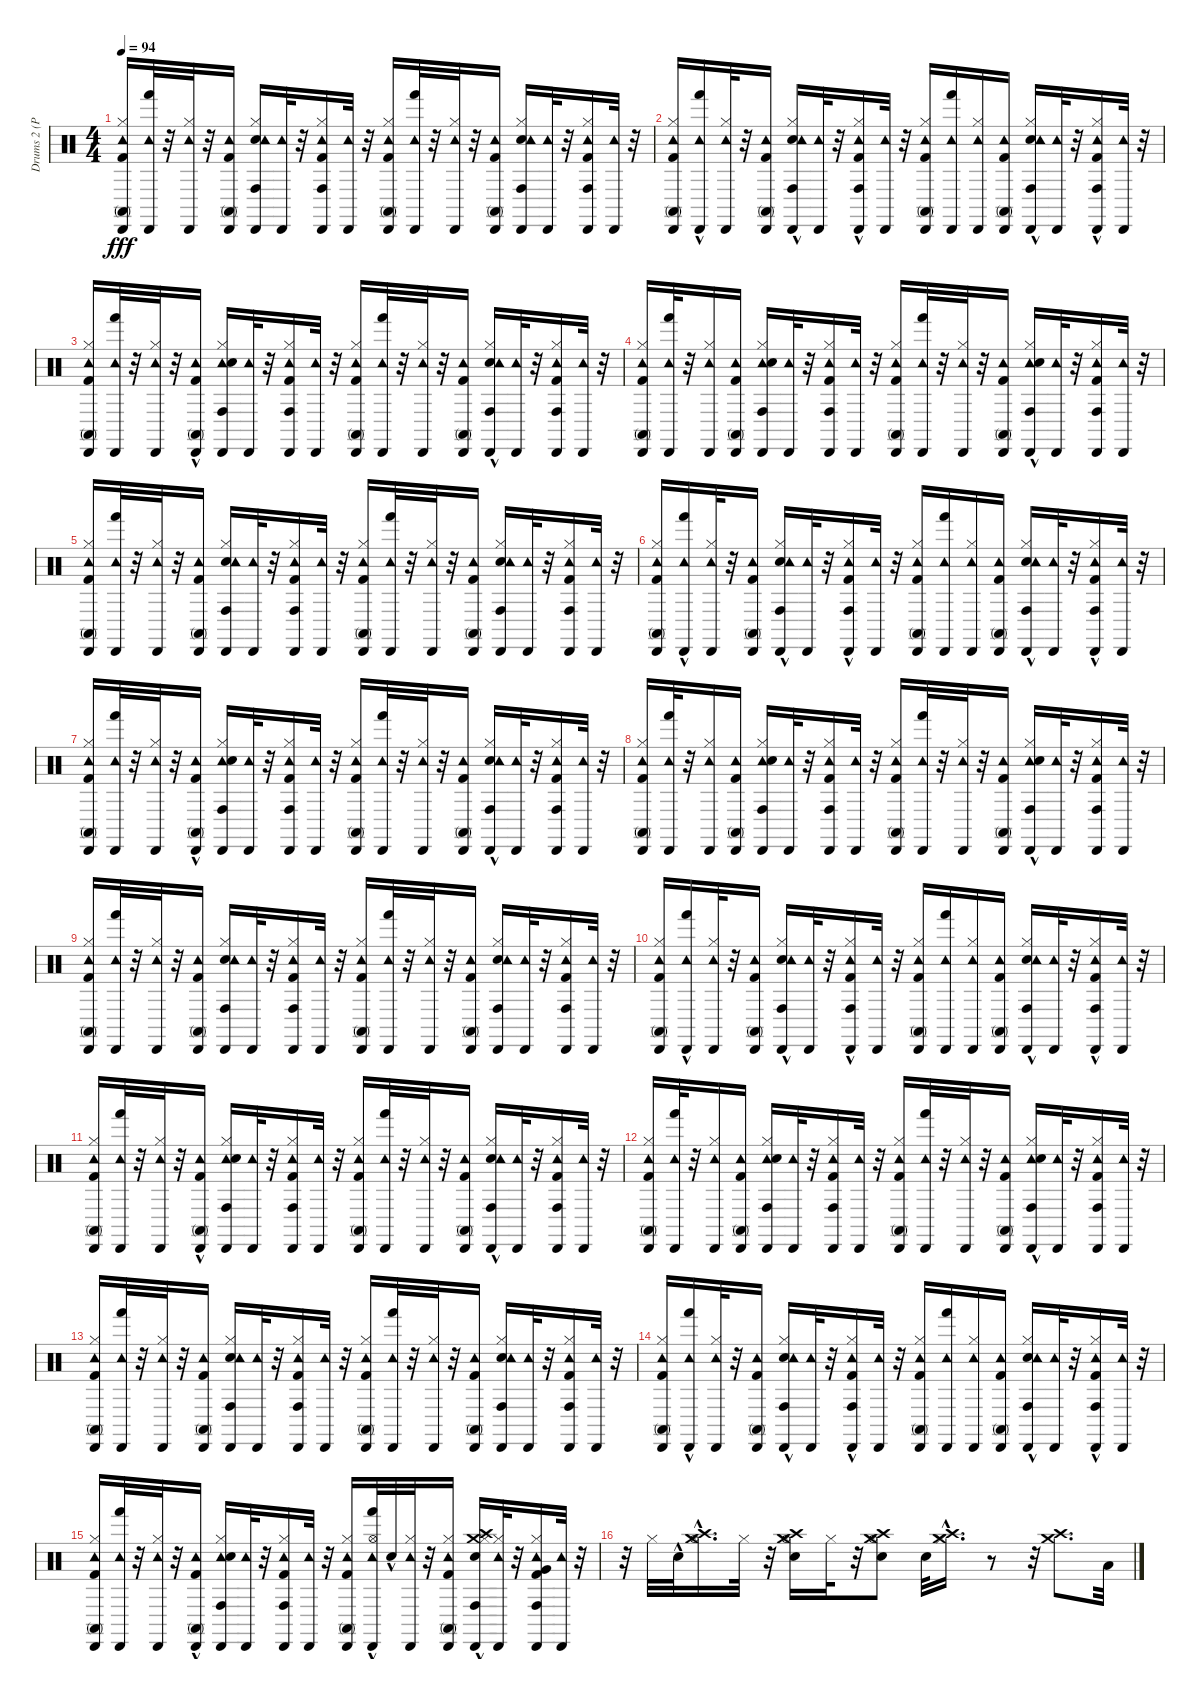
\track ("Drums 2 (Power)" "Drums 2 (P") {instrument percussion}
\staff {score}
\articulation defaults
\ts (4 4)
\tempo 94
\clef neutral
\ks c
("Kick (hit) 2" "Hi-Hat (closed)" "Conga high (mute)" "Cabasa (hit)" "Tambourine (hit)").16{dy fff} ("Tambourine (hit)" "Hand (hit)" "Cabasa (hit)").32 r.32 ("Tambourine (hit)" "Cabasa (hit)" "Hi-Hat (closed)").32 r.32 ("Tambourine (hit)" "Cabasa (hit)" "Kick (hit) 2" "Conga high (mute)").16 ("Cabasa (hit)" "Conga high (hit)" "Hi-Hat (closed)" "Snare (hit) 2" "Tambourine (hit)").16 ("Tambourine (hit)" "Cabasa (hit)").32 r.32 ("Tambourine (hit)" "Cabasa (hit)" "Hi-Hat (closed)" "Kick (hit) 2" "Conga high (hit)").16 ("Tambourine (hit)" "Cabasa (hit)").32 r.32 ("Cabasa (hit)" "Hi-Hat (closed)" "Kick (hit) 2" "Conga high (mute)" "Tambourine (hit)").16 ("Cabasa (hit)" "Hand (hit)" "Tambourine (hit)").32 r.32 ("Cabasa (hit)" "Hi-Hat (closed)" "Tambourine (hit)").32 r.32 ("Tambourine (hit)" "Cabasa (hit)" "Conga high (mute)" "Kick (hit) 2").16 ("Cabasa (hit)" "Conga high (hit)" "Hi-Hat (closed)" "Snare (hit) 2" "Tambourine (hit)").16 ("Cabasa (hit)" "Tambourine (hit)").32 r.32 ("Cabasa (hit)" "Kick (hit) 2" "Hi-Hat (closed)" "Conga high (hit)" "Tambourine (hit)").16 ("Tambourine (hit)" "Cabasa (hit)").32 r.32 |
("Hi-Hat (closed)" "Kick (hit) 2" "Cabasa (hit)" "Conga high (mute)" "Tambourine (hit)").16 ("Cabasa (hit)" "Hand (hit)"{hac} "Tambourine (hit)").16 ("Tambourine (hit)" "Cabasa (hit)" "Hi-Hat (closed)").32 r.32 ("Tambourine (hit)" "Cabasa (hit)" "Kick (hit) 2" "Conga high (mute)").16 ("Cabasa (hit)" "Hi-Hat (closed)" "Snare (hit) 2"{hac} "Conga high (hit)" "Tambourine (hit)").16 ("Tambourine (hit)" "Cabasa (hit)").32 r.32 ("Tambourine (hit)" "Cabasa (hit)" "Hi-Hat (closed)" "Kick (hit) 2"{hac} "Conga high (hit)").16 ("Tambourine (hit)" "Cabasa (hit)").32 r.32 ("Tambourine (hit)" "Conga high (mute)" "Cabasa (hit)" "Hi-Hat (closed)" "Kick (hit) 2").16 ("Tambourine (hit)" "Hand (hit)" "Cabasa (hit)").16 ("Hi-Hat (closed)" "Cabasa (hit)" "Tambourine (hit)").16 ("Conga high (mute)" "Cabasa (hit)" "Kick (hit) 2" "Tambourine (hit)").16 ("Cabasa (hit)" "Hi-Hat (closed)" "Snare (hit) 2"{hac} "Conga high (hit)" "Tambourine (hit)").16 ("Cabasa (hit)" "Tambourine (hit)").32 r.32 ("Cabasa (hit)" "Kick (hit) 2"{hac} "Hi-Hat (closed)" "Conga high (hit)" "Tambourine (hit)").16 ("Cabasa (hit)" "Tambourine (hit)").32 r.32 |
("Tambourine (hit)" "Conga high (mute)" "Kick (hit) 2" "Hi-Hat (closed)" "Cabasa (hit)").16 ("Tambourine (hit)" "Cabasa (hit)" "Hand (hit)").32 r.32 ("Tambourine (hit)" "Cabasa (hit)" "Hi-Hat (closed)").32 r.32 ("Tambourine (hit)" "Conga high (mute)"{hac} "Cabasa (hit)" "Kick (hit) 2").16 ("Tambourine (hit)" "Cabasa (hit)" "Hi-Hat (closed)" "Snare (hit) 2" "Conga high (hit)").16 ("Tambourine (hit)" "Cabasa (hit)").32 r.32 ("Hi-Hat (closed)" "Kick (hit) 2" "Cabasa (hit)" "Conga high (hit)" "Tambourine (hit)").16 ("Cabasa (hit)" "Tambourine (hit)").32 r.32 ("Cabasa (hit)" "Hi-Hat (closed)" "Kick (hit) 2" "Conga high (mute)" "Tambourine (hit)").16 ("Cabasa (hit)" "Hand (hit)" "Tambourine (hit)").32 r.32 ("Tambourine (hit)" "Cabasa (hit)" "Hi-Hat (closed)").32 r.32 ("Cabasa (hit)" "Kick (hit) 2" "Conga high (mute)" "Tambourine (hit)").16 ("Hi-Hat (closed)" "Snare (hit) 2"{hac} "Cabasa (hit)" "Conga high (hit)" "Tambourine (hit)").16 ("Tambourine (hit)" "Cabasa (hit)").32 r.32 ("Kick (hit) 2" "Hi-Hat (closed)" "Cabasa (hit)" "Conga high (hit)" "Tambourine (hit)").16 ("Cabasa (hit)" "Tambourine (hit)").32 r.32 |
("Kick (hit) 2" "Hi-Hat (closed)" "Conga high (mute)" "Cabasa (hit)" "Tambourine (hit)").16 ("Cabasa (hit)" "Hand (hit)" "Tambourine (hit)").32 r.32 ("Hi-Hat (closed)" "Cabasa (hit)" "Tambourine (hit)").16 ("Conga high (mute)" "Kick (hit) 2" "Cabasa (hit)" "Tambourine (hit)").16 ("Tambourine (hit)" "Hi-Hat (closed)" "Snare (hit) 2" "Cabasa (hit)" "Conga high (hit)").16 ("Cabasa (hit)" "Tambourine (hit)").32 r.32 ("Hi-Hat (closed)" "Kick (hit) 2" "Cabasa (hit)" "Conga high (hit)" "Tambourine (hit)").16 ("Cabasa (hit)" "Tambourine (hit)").32 r.32 ("Hi-Hat (closed)" "Kick (hit) 2" "Cabasa (hit)" "Conga high (mute)" "Tambourine (hit)").16 ("Tambourine (hit)" "Cabasa (hit)" "Hand (hit)").32 r.32 ("Tambourine (hit)" "Cabasa (hit)" "Hi-Hat (closed)").32 r.32 ("Conga high (mute)" "Cabasa (hit)" "Kick (hit) 2" "Tambourine (hit)").16 ("Tambourine (hit)" "Cabasa (hit)" "Hi-Hat (closed)" "Snare (hit) 2"{hac} "Conga high (hit)").16 ("Tambourine (hit)" "Cabasa (hit)").32 r.32 ("Tambourine (hit)" "Cabasa (hit)" "Hi-Hat (closed)" "Kick (hit) 2" "Conga high (hit)").16 ("Tambourine (hit)" "Cabasa (hit)").32 r.32 |
("Kick (hit) 2" "Hi-Hat (closed)" "Conga high (mute)" "Cabasa (hit)" "Tambourine (hit)").16 ("Tambourine (hit)" "Hand (hit)" "Cabasa (hit)").32 r.32 ("Tambourine (hit)" "Cabasa (hit)" "Hi-Hat (closed)").32 r.32 ("Tambourine (hit)" "Cabasa (hit)" "Kick (hit) 2" "Conga high (mute)").16 ("Cabasa (hit)" "Conga high (hit)" "Hi-Hat (closed)" "Snare (hit) 2" "Tambourine (hit)").16 ("Tambourine (hit)" "Cabasa (hit)").32 r.32 ("Tambourine (hit)" "Cabasa (hit)" "Hi-Hat (closed)" "Kick (hit) 2" "Conga high (hit)").16 ("Tambourine (hit)" "Cabasa (hit)").32 r.32 ("Cabasa (hit)" "Hi-Hat (closed)" "Kick (hit) 2" "Conga high (mute)" "Tambourine (hit)").16 ("Cabasa (hit)" "Hand (hit)" "Tambourine (hit)").32 r.32 ("Cabasa (hit)" "Hi-Hat (closed)" "Tambourine (hit)").32 r.32 ("Tambourine (hit)" "Cabasa (hit)" "Conga high (mute)" "Kick (hit) 2").16 ("Cabasa (hit)" "Conga high (hit)" "Hi-Hat (closed)" "Snare (hit) 2" "Tambourine (hit)").16 ("Cabasa (hit)" "Tambourine (hit)").32 r.32 ("Cabasa (hit)" "Kick (hit) 2" "Hi-Hat (closed)" "Conga high (hit)" "Tambourine (hit)").16 ("Tambourine (hit)" "Cabasa (hit)").32 r.32 |
("Hi-Hat (closed)" "Kick (hit) 2" "Cabasa (hit)" "Conga high (mute)" "Tambourine (hit)").16 ("Cabasa (hit)" "Hand (hit)"{hac} "Tambourine (hit)").16 ("Tambourine (hit)" "Cabasa (hit)" "Hi-Hat (closed)").32 r.32 ("Tambourine (hit)" "Cabasa (hit)" "Kick (hit) 2" "Conga high (mute)").16 ("Cabasa (hit)" "Hi-Hat (closed)" "Snare (hit) 2"{hac} "Conga high (hit)" "Tambourine (hit)").16 ("Tambourine (hit)" "Cabasa (hit)").32 r.32 ("Tambourine (hit)" "Cabasa (hit)" "Hi-Hat (closed)" "Kick (hit) 2"{hac} "Conga high (hit)").16 ("Tambourine (hit)" "Cabasa (hit)").32 r.32 ("Tambourine (hit)" "Conga high (mute)" "Cabasa (hit)" "Hi-Hat (closed)" "Kick (hit) 2").16 ("Tambourine (hit)" "Hand (hit)" "Cabasa (hit)").16 ("Hi-Hat (closed)" "Cabasa (hit)" "Tambourine (hit)").16 ("Conga high (mute)" "Cabasa (hit)" "Kick (hit) 2" "Tambourine (hit)").16 ("Cabasa (hit)" "Hi-Hat (closed)" "Snare (hit) 2"{hac} "Conga high (hit)" "Tambourine (hit)").16 ("Cabasa (hit)" "Tambourine (hit)").32 r.32 ("Cabasa (hit)" "Kick (hit) 2"{hac} "Hi-Hat (closed)" "Conga high (hit)" "Tambourine (hit)").16 ("Cabasa (hit)" "Tambourine (hit)").32 r.32 |
("Tambourine (hit)" "Conga high (mute)" "Kick (hit) 2" "Hi-Hat (closed)" "Cabasa (hit)").16 ("Tambourine (hit)" "Cabasa (hit)" "Hand (hit)").32 r.32 ("Tambourine (hit)" "Cabasa (hit)" "Hi-Hat (closed)").32 r.32 ("Tambourine (hit)" "Conga high (mute)"{hac} "Cabasa (hit)" "Kick (hit) 2").16 ("Tambourine (hit)" "Cabasa (hit)" "Hi-Hat (closed)" "Snare (hit) 2" "Conga high (hit)").16 ("Tambourine (hit)" "Cabasa (hit)").32 r.32 ("Hi-Hat (closed)" "Kick (hit) 2" "Cabasa (hit)" "Conga high (hit)" "Tambourine (hit)").16 ("Cabasa (hit)" "Tambourine (hit)").32 r.32 ("Cabasa (hit)" "Hi-Hat (closed)" "Kick (hit) 2" "Conga high (mute)" "Tambourine (hit)").16 ("Cabasa (hit)" "Hand (hit)" "Tambourine (hit)").32 r.32 ("Tambourine (hit)" "Cabasa (hit)" "Hi-Hat (closed)").32 r.32 ("Cabasa (hit)" "Kick (hit) 2" "Conga high (mute)" "Tambourine (hit)").16 ("Hi-Hat (closed)" "Snare (hit) 2"{hac} "Cabasa (hit)" "Conga high (hit)" "Tambourine (hit)").16 ("Tambourine (hit)" "Cabasa (hit)").32 r.32 ("Kick (hit) 2" "Hi-Hat (closed)" "Cabasa (hit)" "Conga high (hit)" "Tambourine (hit)").16 ("Cabasa (hit)" "Tambourine (hit)").32 r.32 |
("Kick (hit) 2" "Hi-Hat (closed)" "Conga high (mute)" "Cabasa (hit)" "Tambourine (hit)").16 ("Cabasa (hit)" "Hand (hit)" "Tambourine (hit)").32 r.32 ("Hi-Hat (closed)" "Cabasa (hit)" "Tambourine (hit)").16 ("Conga high (mute)" "Kick (hit) 2" "Cabasa (hit)" "Tambourine (hit)").16 ("Tambourine (hit)" "Hi-Hat (closed)" "Snare (hit) 2" "Cabasa (hit)" "Conga high (hit)").16 ("Cabasa (hit)" "Tambourine (hit)").32 r.32 ("Hi-Hat (closed)" "Kick (hit) 2" "Cabasa (hit)" "Conga high (hit)" "Tambourine (hit)").16 ("Cabasa (hit)" "Tambourine (hit)").32 r.32 ("Hi-Hat (closed)" "Kick (hit) 2" "Cabasa (hit)" "Conga high (mute)" "Tambourine (hit)").16 ("Tambourine (hit)" "Cabasa (hit)" "Hand (hit)").32 r.32 ("Tambourine (hit)" "Cabasa (hit)" "Hi-Hat (closed)").32 r.32 ("Conga high (mute)" "Cabasa (hit)" "Kick (hit) 2" "Tambourine (hit)").16 ("Tambourine (hit)" "Cabasa (hit)" "Hi-Hat (closed)" "Snare (hit) 2"{hac} "Conga high (hit)").16 ("Tambourine (hit)" "Cabasa (hit)").32 r.32 ("Tambourine (hit)" "Cabasa (hit)" "Hi-Hat (closed)" "Kick (hit) 2" "Conga high (hit)").16 ("Tambourine (hit)" "Cabasa (hit)").32 r.32 |
("Kick (hit) 2" "Hi-Hat (closed)" "Conga high (mute)" "Cabasa (hit)" "Tambourine (hit)").16 ("Tambourine (hit)" "Hand (hit)" "Cabasa (hit)").32 r.32 ("Tambourine (hit)" "Cabasa (hit)" "Hi-Hat (closed)").32 r.32 ("Tambourine (hit)" "Cabasa (hit)" "Kick (hit) 2" "Conga high (mute)").16 ("Cabasa (hit)" "Conga high (hit)" "Hi-Hat (closed)" "Snare (hit) 2" "Tambourine (hit)").16 ("Tambourine (hit)" "Cabasa (hit)").32 r.32 ("Tambourine (hit)" "Cabasa (hit)" "Hi-Hat (closed)" "Kick (hit) 2" "Conga high (hit)").16 ("Tambourine (hit)" "Cabasa (hit)").32 r.32 ("Cabasa (hit)" "Hi-Hat (closed)" "Kick (hit) 2" "Conga high (mute)" "Tambourine (hit)").16 ("Cabasa (hit)" "Hand (hit)" "Tambourine (hit)").32 r.32 ("Cabasa (hit)" "Hi-Hat (closed)" "Tambourine (hit)").32 r.32 ("Tambourine (hit)" "Cabasa (hit)" "Conga high (mute)" "Kick (hit) 2").16 ("Cabasa (hit)" "Conga high (hit)" "Hi-Hat (closed)" "Snare (hit) 2" "Tambourine (hit)").16 ("Cabasa (hit)" "Tambourine (hit)").32 r.32 ("Cabasa (hit)" "Kick (hit) 2" "Hi-Hat (closed)" "Conga high (hit)" "Tambourine (hit)").16 ("Tambourine (hit)" "Cabasa (hit)").32 r.32 |
("Hi-Hat (closed)" "Kick (hit) 2" "Cabasa (hit)" "Conga high (mute)" "Tambourine (hit)").16 ("Cabasa (hit)" "Hand (hit)"{hac} "Tambourine (hit)").16 ("Tambourine (hit)" "Cabasa (hit)" "Hi-Hat (closed)").32 r.32 ("Tambourine (hit)" "Cabasa (hit)" "Kick (hit) 2" "Conga high (mute)").16 ("Cabasa (hit)" "Hi-Hat (closed)" "Snare (hit) 2"{hac} "Conga high (hit)" "Tambourine (hit)").16 ("Tambourine (hit)" "Cabasa (hit)").32 r.32 ("Tambourine (hit)" "Cabasa (hit)" "Hi-Hat (closed)" "Kick (hit) 2"{hac} "Conga high (hit)").16 ("Tambourine (hit)" "Cabasa (hit)").32 r.32 ("Tambourine (hit)" "Conga high (mute)" "Cabasa (hit)" "Hi-Hat (closed)" "Kick (hit) 2").16 ("Tambourine (hit)" "Hand (hit)" "Cabasa (hit)").16 ("Hi-Hat (closed)" "Cabasa (hit)" "Tambourine (hit)").16 ("Conga high (mute)" "Cabasa (hit)" "Kick (hit) 2" "Tambourine (hit)").16 ("Cabasa (hit)" "Hi-Hat (closed)" "Snare (hit) 2"{hac} "Conga high (hit)" "Tambourine (hit)").16 ("Cabasa (hit)" "Tambourine (hit)").32 r.32 ("Cabasa (hit)" "Kick (hit) 2"{hac} "Hi-Hat (closed)" "Conga high (hit)" "Tambourine (hit)").16 ("Cabasa (hit)" "Tambourine (hit)").32 r.32 |
("Tambourine (hit)" "Conga high (mute)" "Kick (hit) 2" "Hi-Hat (closed)" "Cabasa (hit)").16 ("Tambourine (hit)" "Cabasa (hit)" "Hand (hit)").32 r.32 ("Tambourine (hit)" "Cabasa (hit)" "Hi-Hat (closed)").32 r.32 ("Tambourine (hit)" "Conga high (mute)"{hac} "Cabasa (hit)" "Kick (hit) 2").16 ("Tambourine (hit)" "Cabasa (hit)" "Hi-Hat (closed)" "Snare (hit) 2" "Conga high (hit)").16 ("Tambourine (hit)" "Cabasa (hit)").32 r.32 ("Hi-Hat (closed)" "Kick (hit) 2" "Cabasa (hit)" "Conga high (hit)" "Tambourine (hit)").16 ("Cabasa (hit)" "Tambourine (hit)").32 r.32 ("Cabasa (hit)" "Hi-Hat (closed)" "Kick (hit) 2" "Conga high (mute)" "Tambourine (hit)").16 ("Cabasa (hit)" "Hand (hit)" "Tambourine (hit)").32 r.32 ("Tambourine (hit)" "Cabasa (hit)" "Hi-Hat (closed)").32 r.32 ("Cabasa (hit)" "Kick (hit) 2" "Conga high (mute)" "Tambourine (hit)").16 ("Hi-Hat (closed)" "Snare (hit) 2"{hac} "Cabasa (hit)" "Conga high (hit)" "Tambourine (hit)").16 ("Tambourine (hit)" "Cabasa (hit)").32 r.32 ("Kick (hit) 2" "Hi-Hat (closed)" "Cabasa (hit)" "Conga high (hit)" "Tambourine (hit)").16 ("Cabasa (hit)" "Tambourine (hit)").32 r.32 |
("Kick (hit) 2" "Hi-Hat (closed)" "Conga high (mute)" "Cabasa (hit)" "Tambourine (hit)").16 ("Cabasa (hit)" "Hand (hit)" "Tambourine (hit)").32 r.32 ("Hi-Hat (closed)" "Cabasa (hit)" "Tambourine (hit)").16 ("Conga high (mute)" "Kick (hit) 2" "Cabasa (hit)" "Tambourine (hit)").16 ("Tambourine (hit)" "Hi-Hat (closed)" "Snare (hit) 2" "Cabasa (hit)" "Conga high (hit)").16 ("Cabasa (hit)" "Tambourine (hit)").32 r.32 ("Hi-Hat (closed)" "Kick (hit) 2" "Cabasa (hit)" "Conga high (hit)" "Tambourine (hit)").16 ("Cabasa (hit)" "Tambourine (hit)").32 r.32 ("Hi-Hat (closed)" "Kick (hit) 2" "Cabasa (hit)" "Conga high (mute)" "Tambourine (hit)").16 ("Tambourine (hit)" "Cabasa (hit)" "Hand (hit)").32 r.32 ("Tambourine (hit)" "Cabasa (hit)" "Hi-Hat (closed)").32 r.32 ("Conga high (mute)" "Cabasa (hit)" "Kick (hit) 2" "Tambourine (hit)").16 ("Tambourine (hit)" "Cabasa (hit)" "Hi-Hat (closed)" "Snare (hit) 2"{hac} "Conga high (hit)").16 ("Tambourine (hit)" "Cabasa (hit)").32 r.32 ("Tambourine (hit)" "Cabasa (hit)" "Hi-Hat (closed)" "Kick (hit) 2" "Conga high (hit)").16 ("Tambourine (hit)" "Cabasa (hit)").32 r.32 |
("Kick (hit) 2" "Hi-Hat (closed)" "Conga high (mute)" "Cabasa (hit)" "Tambourine (hit)").16 ("Tambourine (hit)" "Hand (hit)" "Cabasa (hit)").32 r.32 ("Tambourine (hit)" "Cabasa (hit)" "Hi-Hat (closed)").32 r.32 ("Tambourine (hit)" "Cabasa (hit)" "Kick (hit) 2" "Conga high (mute)").16 ("Cabasa (hit)" "Conga high (hit)" "Hi-Hat (closed)" "Snare (hit) 2" "Tambourine (hit)").16 ("Tambourine (hit)" "Cabasa (hit)").32 r.32 ("Tambourine (hit)" "Cabasa (hit)" "Hi-Hat (closed)" "Kick (hit) 2" "Conga high (hit)").16 ("Tambourine (hit)" "Cabasa (hit)").32 r.32 ("Cabasa (hit)" "Hi-Hat (closed)" "Kick (hit) 2" "Conga high (mute)" "Tambourine (hit)").16 ("Cabasa (hit)" "Hand (hit)" "Tambourine (hit)").32 r.32 ("Cabasa (hit)" "Hi-Hat (closed)" "Tambourine (hit)").32 r.32 ("Tambourine (hit)" "Cabasa (hit)" "Conga high (mute)" "Kick (hit) 2").16 ("Cabasa (hit)" "Conga high (hit)" "Hi-Hat (closed)" "Snare (hit) 2" "Tambourine (hit)").16 ("Cabasa (hit)" "Tambourine (hit)").32 r.32 ("Cabasa (hit)" "Kick (hit) 2" "Hi-Hat (closed)" "Conga high (hit)" "Tambourine (hit)").16 ("Tambourine (hit)" "Cabasa (hit)").32 r.32 |
("Hi-Hat (closed)" "Kick (hit) 2" "Cabasa (hit)" "Conga high (mute)" "Tambourine (hit)").16 ("Cabasa (hit)" "Hand (hit)"{hac} "Tambourine (hit)").16 ("Tambourine (hit)" "Cabasa (hit)" "Hi-Hat (closed)").32 r.32 ("Tambourine (hit)" "Cabasa (hit)" "Kick (hit) 2" "Conga high (mute)").16 ("Cabasa (hit)" "Hi-Hat (closed)" "Snare (hit) 2"{hac} "Conga high (hit)" "Tambourine (hit)").16 ("Tambourine (hit)" "Cabasa (hit)").32 r.32 ("Tambourine (hit)" "Cabasa (hit)" "Hi-Hat (closed)" "Kick (hit) 2"{hac} "Conga high (hit)").16 ("Tambourine (hit)" "Cabasa (hit)").32 r.32 ("Tambourine (hit)" "Conga high (mute)" "Cabasa (hit)" "Hi-Hat (closed)" "Kick (hit) 2").16 ("Tambourine (hit)" "Hand (hit)" "Cabasa (hit)").16 ("Hi-Hat (closed)" "Cabasa (hit)" "Tambourine (hit)").16 ("Conga high (mute)" "Cabasa (hit)" "Kick (hit) 2" "Tambourine (hit)").16 ("Cabasa (hit)" "Hi-Hat (closed)" "Snare (hit) 2"{hac} "Conga high (hit)" "Tambourine (hit)").16 ("Cabasa (hit)" "Tambourine (hit)").32 r.32 ("Cabasa (hit)" "Kick (hit) 2"{hac} "Hi-Hat (closed)" "Conga high (hit)" "Tambourine (hit)").16 ("Cabasa (hit)" "Tambourine (hit)").32 r.32 |
("Tambourine (hit)" "Conga high (mute)" "Kick (hit) 2" "Hi-Hat (closed)" "Cabasa (hit)").16 ("Tambourine (hit)" "Cabasa (hit)" "Hand (hit)").32 r.32 ("Tambourine (hit)" "Cabasa (hit)" "Hi-Hat (closed)").32 r.32 ("Tambourine (hit)" "Conga high (mute)"{hac} "Cabasa (hit)" "Kick (hit) 2").16 ("Tambourine (hit)" "Cabasa (hit)" "Hi-Hat (closed)" "Snare (hit) 2" "Conga high (hit)").16 ("Tambourine (hit)" "Cabasa (hit)").32 r.32 ("Hi-Hat (closed)" "Kick (hit) 2" "Cabasa (hit)" "Conga high (hit)" "Tambourine (hit)").16 ("Cabasa (hit)" "Tambourine (hit)").32 r.32 ("Cabasa (hit)" "Hi-Hat (closed)" "Kick (hit) 2" "Conga high (mute)" "Tambourine (hit)").16 ("Cabasa (hit)" "Hand (hit)" "Tambourine (hit)" "Hi-Hat (open)"{hac}).32 "Snare (hit) 2"{hac}.32 ("Tambourine (hit)" "Cabasa (hit)" "Hi-Hat (closed)").32 r.32 ("Cabasa (hit)" "Kick (hit) 2" "Conga high (mute)" "Tambourine (hit)" "Hi-Hat (closed)").16 ("Crash high (hit)" "Crash medium (hit)" "Hi-Hat (closed)" "Snare (hit) 2"{hac} "Cabasa (hit)" "Conga high (hit)").16 ("Tambourine (hit)" "Cabasa (hit)" "Hi-Hat (closed)").32 r.32 ("Kick (hit) 2" "Hi-Hat (closed)" "Cabasa (hit)" "Conga high (hit)" "Tambourine (hit)" "Very Low Tom (hit)").16 ("Cabasa (hit)" "Tambourine (hit)").32 r.32 |
r.32 "Hi-Hat (closed)".32 "Snare (hit) 2"{hac}.32 ("Hi-Hat (open)"{hac} "Crash high (hit)" "Crash medium (hit)").16{d} "Hi-Hat (closed)".32 r.32 ("Snare (hit) 2" "Hi-Hat (open)" "Crash high (hit)" "Crash medium (hit)").16 "Hi-Hat (closed)".32 r.32 ("Snare (hit) 2" "Crash high (hit)" "Crash medium (hit)" "Hi-Hat (open)").8 "Snare (hit) 2".32 ("Crash medium (hit)"{hac} "Crash high (hit)" "Hi-Hat (closed)").16{d} r.8 r.32 ("Crash high (hit)" "Crash medium (hit)").8{d} "Low Tom (hit)".32
